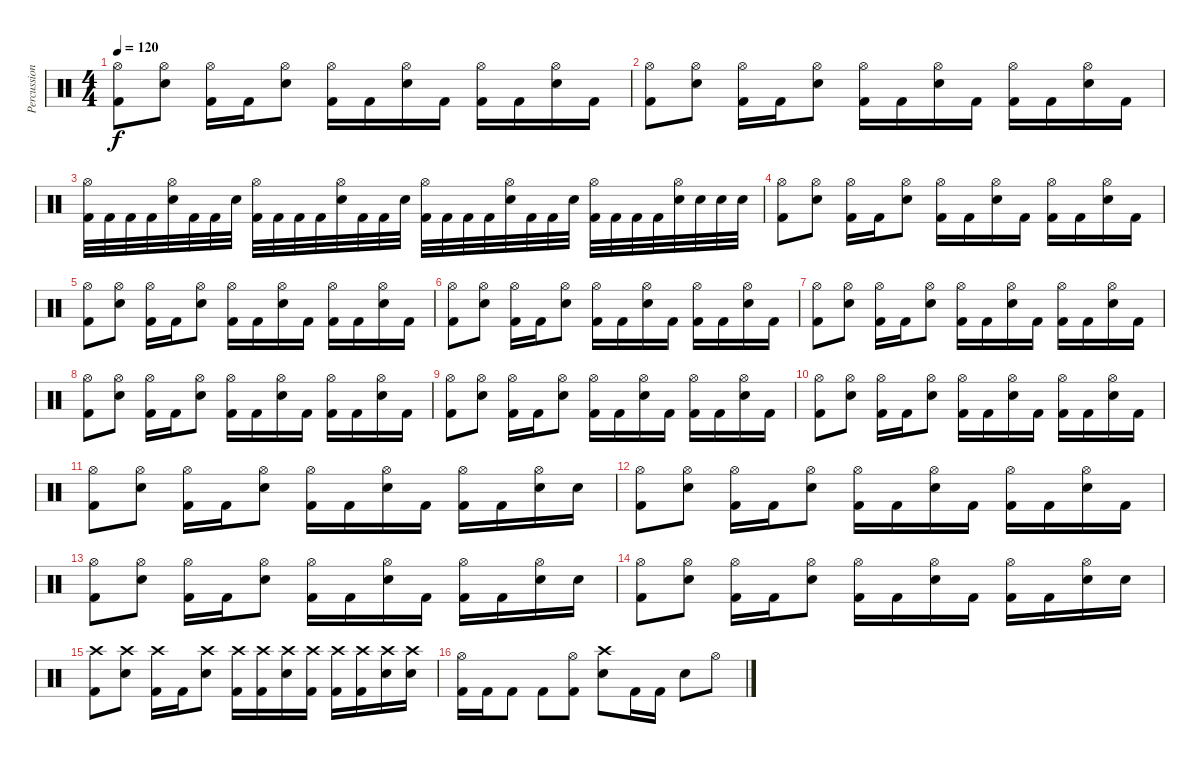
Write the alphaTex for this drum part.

\track ("Percussions" "Percussion") {instrument percussion}
\staff {score}
\articulation defaults
\ts (4 4)
\tempo 120
\clef neutral
\ks c
("Hi-Hat (open)" "Kick (hit) 2").8{dy f} ("Hi-Hat (open)" "Electric Snare (hit)").8 ("Hi-Hat (open)" "Kick (hit) 2").16 "Kick (hit) 2".16 ("Hi-Hat (open)" "Electric Snare (hit)").8 ("Hi-Hat (open)" "Kick (hit) 2").16 "Kick (hit) 2".16 ("Hi-Hat (open)" "Electric Snare (hit)").16 "Kick (hit) 2".16 ("Hi-Hat (open)" "Kick (hit) 2").16 "Kick (hit) 2".16 ("Hi-Hat (open)" "Electric Snare (hit)").16 "Kick (hit) 2".16 |
("Hi-Hat (open)" "Kick (hit) 2").8 ("Hi-Hat (open)" "Electric Snare (hit)").8 ("Hi-Hat (open)" "Kick (hit) 2").16 "Kick (hit) 2".16 ("Hi-Hat (open)" "Electric Snare (hit)").8 ("Hi-Hat (open)" "Kick (hit) 2").16 "Kick (hit) 2".16 ("Hi-Hat (open)" "Electric Snare (hit)").16 "Kick (hit) 2".16 ("Hi-Hat (open)" "Kick (hit) 2").16 "Kick (hit) 2".16 ("Hi-Hat (open)" "Electric Snare (hit)").16 "Kick (hit) 2".16 |
("Hi-Hat (open)" "Kick (hit) 2").32 "Kick (hit) 2".32 "Kick (hit) 2".32 "Kick (hit) 2".32 ("Hi-Hat (open)" "Electric Snare (hit)").32 "Kick (hit) 2".32 "Kick (hit) 2".32 "Electric Snare (hit)".32 ("Hi-Hat (open)" "Kick (hit) 2").32 "Kick (hit) 2".32 "Kick (hit) 2".32 "Kick (hit) 2".32 ("Hi-Hat (open)" "Electric Snare (hit)").32 "Kick (hit) 2".32 "Kick (hit) 2".32 "Electric Snare (hit)".32 ("Hi-Hat (open)" "Kick (hit) 2").32 "Kick (hit) 2".32 "Kick (hit) 2".32 "Kick (hit) 2".32 ("Hi-Hat (open)" "Electric Snare (hit)").32 "Kick (hit) 2".32 "Kick (hit) 2".32 "Electric Snare (hit)".32 ("Hi-Hat (open)" "Kick (hit) 2").32 "Kick (hit) 2".32 "Kick (hit) 2".32 "Kick (hit) 2".32 ("Hi-Hat (open)" "Electric Snare (hit)").32 "Electric Snare (hit)".32 "Electric Snare (hit)".32 "Electric Snare (hit)".32 |
("Hi-Hat (open)" "Kick (hit) 2").8 ("Hi-Hat (open)" "Electric Snare (hit)").8 ("Hi-Hat (open)" "Kick (hit) 2").16 "Kick (hit) 2".16 ("Hi-Hat (open)" "Electric Snare (hit)").8 ("Hi-Hat (open)" "Kick (hit) 2").16 "Kick (hit) 2".16 ("Hi-Hat (open)" "Electric Snare (hit)").16 "Kick (hit) 2".16 ("Hi-Hat (open)" "Kick (hit) 2").16 "Kick (hit) 2".16 ("Hi-Hat (open)" "Electric Snare (hit)").16 "Kick (hit) 2".16 |
("Hi-Hat (open)" "Kick (hit) 2").8 ("Hi-Hat (open)" "Electric Snare (hit)").8 ("Hi-Hat (open)" "Kick (hit) 2").16 "Kick (hit) 2".16 ("Hi-Hat (open)" "Electric Snare (hit)").8 ("Hi-Hat (open)" "Kick (hit) 2").16 "Kick (hit) 2".16 ("Hi-Hat (open)" "Electric Snare (hit)").16 "Kick (hit) 2".16 ("Hi-Hat (open)" "Kick (hit) 2").16 "Kick (hit) 2".16 ("Hi-Hat (open)" "Electric Snare (hit)").16 "Kick (hit) 2".16 |
("Hi-Hat (open)" "Kick (hit) 2").8 ("Hi-Hat (open)" "Electric Snare (hit)").8 ("Hi-Hat (open)" "Kick (hit) 2").16 "Kick (hit) 2".16 ("Hi-Hat (open)" "Electric Snare (hit)").8 ("Hi-Hat (open)" "Kick (hit) 2").16 "Kick (hit) 2".16 ("Hi-Hat (open)" "Electric Snare (hit)").16 "Kick (hit) 2".16 ("Hi-Hat (open)" "Kick (hit) 2").16 "Kick (hit) 2".16 ("Hi-Hat (open)" "Electric Snare (hit)").16 "Kick (hit) 2".16 |
("Hi-Hat (open)" "Kick (hit) 2").8 ("Hi-Hat (open)" "Electric Snare (hit)").8 ("Hi-Hat (open)" "Kick (hit) 2").16 "Kick (hit) 2".16 ("Hi-Hat (open)" "Electric Snare (hit)").8 ("Hi-Hat (open)" "Kick (hit) 2").16 "Kick (hit) 2".16 ("Hi-Hat (open)" "Electric Snare (hit)").16 "Kick (hit) 2".16 ("Hi-Hat (open)" "Kick (hit) 2").16 "Kick (hit) 2".16 ("Hi-Hat (open)" "Electric Snare (hit)").16 "Kick (hit) 2".16 |
("Hi-Hat (open)" "Kick (hit) 2").8 ("Hi-Hat (open)" "Electric Snare (hit)").8 ("Hi-Hat (open)" "Kick (hit) 2").16 "Kick (hit) 2".16 ("Hi-Hat (open)" "Electric Snare (hit)").8 ("Hi-Hat (open)" "Kick (hit) 2").16 "Kick (hit) 2".16 ("Hi-Hat (open)" "Electric Snare (hit)").16 "Kick (hit) 2".16 ("Hi-Hat (open)" "Kick (hit) 2").16 "Kick (hit) 2".16 ("Hi-Hat (open)" "Electric Snare (hit)").16 "Kick (hit) 2".16 |
("Hi-Hat (open)" "Kick (hit) 2").8 ("Hi-Hat (open)" "Electric Snare (hit)").8 ("Hi-Hat (open)" "Kick (hit) 2").16 "Kick (hit) 2".16 ("Hi-Hat (open)" "Electric Snare (hit)").8 ("Hi-Hat (open)" "Kick (hit) 2").16 "Kick (hit) 2".16 ("Hi-Hat (open)" "Electric Snare (hit)").16 "Kick (hit) 2".16 ("Hi-Hat (open)" "Kick (hit) 2").16 "Kick (hit) 2".16 ("Hi-Hat (open)" "Electric Snare (hit)").16 "Kick (hit) 2".16 |
("Hi-Hat (open)" "Kick (hit) 2").8 ("Hi-Hat (open)" "Electric Snare (hit)").8 ("Hi-Hat (open)" "Kick (hit) 2").16 "Kick (hit) 2".16 ("Hi-Hat (open)" "Electric Snare (hit)").8 ("Hi-Hat (open)" "Kick (hit) 2").16 "Kick (hit) 2".16 ("Hi-Hat (open)" "Electric Snare (hit)").16 "Kick (hit) 2".16 ("Hi-Hat (open)" "Kick (hit) 2").16 "Kick (hit) 2".16 ("Hi-Hat (open)" "Electric Snare (hit)").16 "Kick (hit) 2".16 |
("Hi-Hat (open)" "Kick (hit) 2").8 ("Hi-Hat (open)" "Electric Snare (hit)").8 ("Hi-Hat (open)" "Kick (hit) 2").16 "Kick (hit) 2".16 ("Hi-Hat (open)" "Electric Snare (hit)").8 ("Hi-Hat (open)" "Kick (hit) 2").16 "Kick (hit) 2".16 ("Hi-Hat (open)" "Electric Snare (hit)").16 "Kick (hit) 2".16 ("Hi-Hat (open)" "Kick (hit) 2").16 "Kick (hit) 2".16 ("Hi-Hat (open)" "Electric Snare (hit)").16 "Electric Snare (hit)".16 |
("Hi-Hat (open)" "Kick (hit) 2").8 ("Hi-Hat (open)" "Electric Snare (hit)").8 ("Hi-Hat (open)" "Kick (hit) 2").16 "Kick (hit) 2".16 ("Hi-Hat (open)" "Electric Snare (hit)").8 ("Hi-Hat (open)" "Kick (hit) 2").16 "Kick (hit) 2".16 ("Hi-Hat (open)" "Electric Snare (hit)").16 "Kick (hit) 2".16 ("Hi-Hat (open)" "Kick (hit) 2").16 "Kick (hit) 2".16 ("Hi-Hat (open)" "Electric Snare (hit)").16 "Kick (hit) 2".16 |
("Hi-Hat (open)" "Kick (hit) 2").8 ("Hi-Hat (open)" "Electric Snare (hit)").8 ("Hi-Hat (open)" "Kick (hit) 2").16 "Kick (hit) 2".16 ("Hi-Hat (open)" "Electric Snare (hit)").8 ("Hi-Hat (open)" "Kick (hit) 2").16 "Kick (hit) 2".16 ("Hi-Hat (open)" "Electric Snare (hit)").16 "Kick (hit) 2".16 ("Hi-Hat (open)" "Kick (hit) 2").16 "Kick (hit) 2".16 ("Hi-Hat (open)" "Electric Snare (hit)").16 "Electric Snare (hit)".16 |
("Hi-Hat (open)" "Kick (hit) 2").8 ("Hi-Hat (open)" "Electric Snare (hit)").8 ("Hi-Hat (open)" "Kick (hit) 2").16 "Kick (hit) 2".16 ("Hi-Hat (open)" "Electric Snare (hit)").8 ("Hi-Hat (open)" "Kick (hit) 2").16 "Kick (hit) 2".16 ("Hi-Hat (open)" "Electric Snare (hit)").16 "Kick (hit) 2".16 ("Hi-Hat (open)" "Kick (hit) 2").16 "Kick (hit) 2".16 ("Hi-Hat (open)" "Electric Snare (hit)").16 "Electric Snare (hit)".16 |
("Crash high (hit)" "Kick (hit) 2").8 ("Crash high (hit)" "Electric Snare (hit)").8 ("Crash high (hit)" "Kick (hit) 2").16 "Kick (hit) 2".16 ("Crash high (hit)" "Electric Snare (hit)").8 ("Crash high (hit)" "Kick (hit) 2").16 ("Crash high (hit)" "Kick (hit) 2").16 ("Crash high (hit)" "Electric Snare (hit)").16 ("Crash high (hit)" "Kick (hit) 2").16 ("Crash high (hit)" "Kick (hit) 2").16 ("Crash high (hit)" "Kick (hit) 2").16 ("Crash high (hit)" "Electric Snare (hit)").16 ("Crash high (hit)" "Electric Snare (hit)").16 |
("Hi-Hat (open)" "Kick (hit) 2").16 "Kick (hit) 2".16 "Kick (hit) 2".8 "Kick (hit) 2".8 ("Hi-Hat (open)" "Kick (hit) 2").8 ("Crash high (hit)" "Electric Snare (hit)").8 "Kick (hit) 2".16 "Kick (hit) 2".16 "Electric Snare (hit)".8 "Hi-Hat (open)".8
